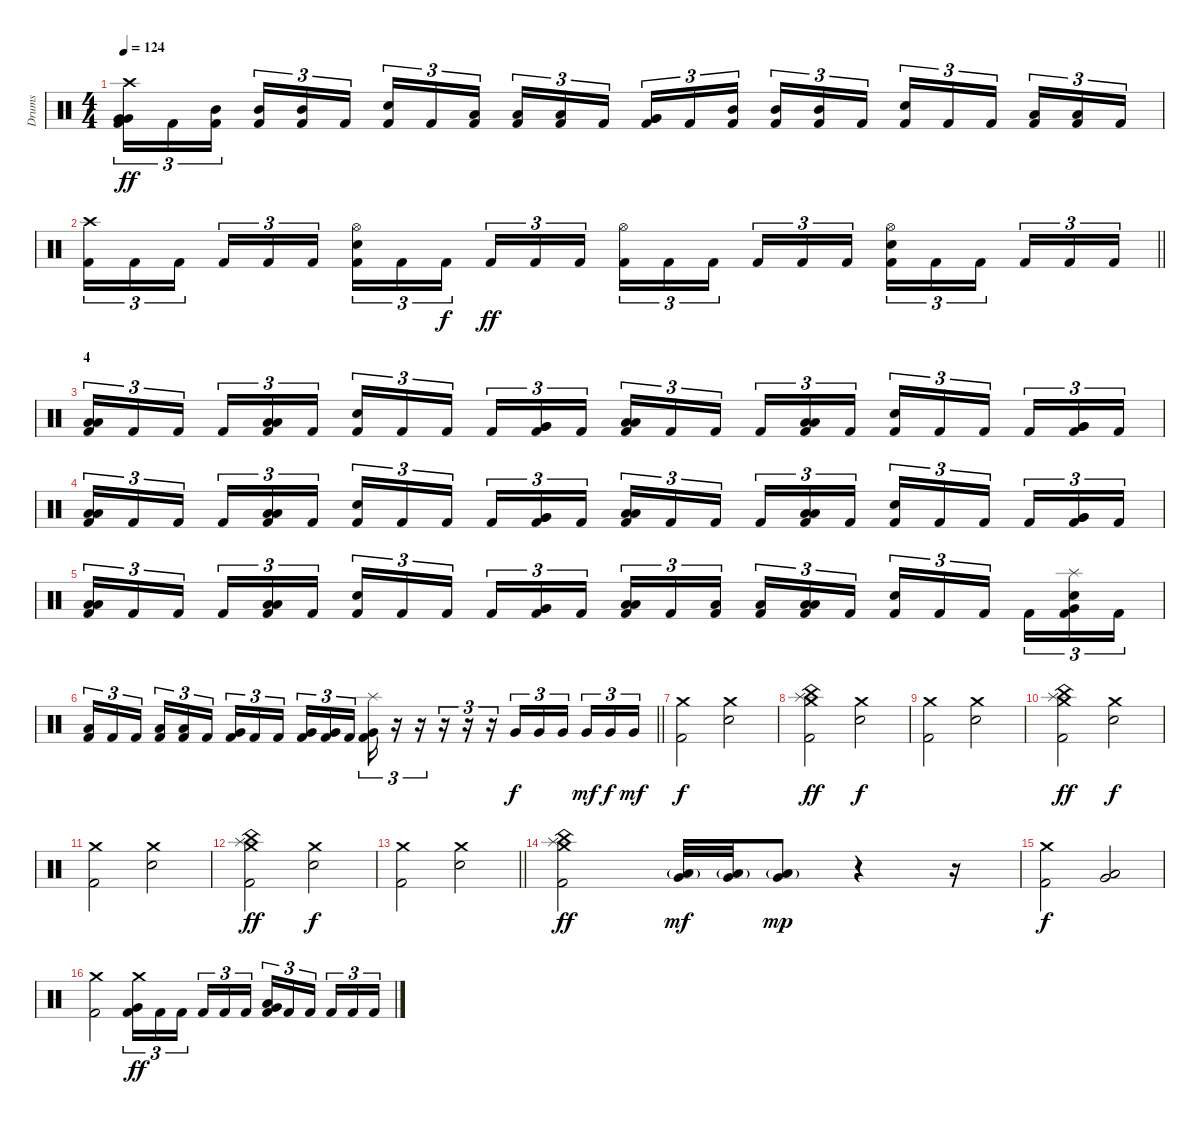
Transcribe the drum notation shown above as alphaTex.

\track ("Drums" "Drums") {instrument percussion}
\staff {score}
\articulation defaults
\ts (4 4)
\tempo 124
\clef neutral
\ks c
("Crash high (hit)" "Very Low Tom (hit)" "Very Low Tom (hit)" "Kick (hit) 2").16{tu (3 2) dy ff} "Kick (hit) 2".16{tu (3 2)} ("Mid Tom (hit)" "Kick (hit) 2").16{tu (3 2)} ("Mid Tom (hit)" "Kick (hit) 2").16{tu (3 2)} ("Mid Tom (hit)" "Kick (hit) 2").16{tu (3 2)} "Kick (hit) 2".16{tu (3 2)} ("Electric Snare (hit)" "Kick (hit) 2").16{tu (3 2)} "Kick (hit) 2".16{tu (3 2)} ("Low Tom (hit)" "Kick (hit) 2").16{tu (3 2)} ("Low Tom (hit)" "Kick (hit) 2").16{tu (3 2)} ("Low Tom (hit)" "Kick (hit) 2").16{tu (3 2)} "Kick (hit) 2".16{tu (3 2)} ("Very Low Tom (hit)" "Very Low Tom (hit)" "Kick (hit) 2").16{tu (3 2)} "Kick (hit) 2".16{tu (3 2)} ("Mid Tom (hit)" "Kick (hit) 2").16{tu (3 2)} ("Mid Tom (hit)" "Kick (hit) 2").16{tu (3 2)} ("Mid Tom (hit)" "Kick (hit) 2").16{tu (3 2)} "Kick (hit) 2".16{tu (3 2)} ("Electric Snare (hit)" "Kick (hit) 2").16{tu (3 2)} "Kick (hit) 2".16{tu (3 2)} "Kick (hit) 2".16{tu (3 2)} ("Low Tom (hit)" "Kick (hit) 2").16{tu (3 2)} ("Low Tom (hit)" "Kick (hit) 2").16{tu (3 2)} "Kick (hit) 2".16{tu (3 2)} |
\barLineRight lightlight
("Crash high (hit)" "Kick (hit) 2").16{tu (3 2)} "Kick (hit) 2".16{tu (3 2)} "Kick (hit) 2".16{tu (3 2)} "Kick (hit) 2".16{tu (3 2)} "Kick (hit) 2".16{tu (3 2)} "Kick (hit) 2".16{tu (3 2)} ("Hi-Hat (open)" "Electric Snare (hit)" "Kick (hit) 2").16{tu (3 2)} "Kick (hit) 2".16{tu (3 2)} "Kick (hit) 2".16{tu (3 2) dy f} "Kick (hit) 2".16{tu (3 2) dy ff} "Kick (hit) 2".16{tu (3 2)} "Kick (hit) 2".16{tu (3 2)} ("Hi-Hat (open)" "Kick (hit) 2").16{tu (3 2)} "Kick (hit) 2".16{tu (3 2)} "Kick (hit) 2".16{tu (3 2)} "Kick (hit) 2".16{tu (3 2)} "Kick (hit) 2".16{tu (3 2)} "Kick (hit) 2".16{tu (3 2)} ("Hi-Hat (open)" "Electric Snare (hit)" "Kick (hit) 2").16{tu (3 2)} "Kick (hit) 2".16{tu (3 2)} "Kick (hit) 2".16{tu (3 2)} "Kick (hit) 2".16{tu (3 2)} "Kick (hit) 2".16{tu (3 2)} "Kick (hit) 2".16{tu (3 2)} |
\section ("" "4")
("Low Tom (hit)" "Low Tom (hit)" "Kick (hit) 2").16{tu (3 2)} "Kick (hit) 2".16{tu (3 2)} "Kick (hit) 2".16{tu (3 2)} "Kick (hit) 2".16{tu (3 2)} ("Low Tom (hit)" "Low Tom (hit)" "Kick (hit) 2").16{tu (3 2)} "Kick (hit) 2".16{tu (3 2)} ("Electric Snare (hit)" "Kick (hit) 2").16{tu (3 2)} "Kick (hit) 2".16{tu (3 2)} "Kick (hit) 2".16{tu (3 2)} "Kick (hit) 2".16{tu (3 2)} ("Very Low Tom (hit)" "Very Low Tom (hit)" "Kick (hit) 2").16{tu (3 2)} "Kick (hit) 2".16{tu (3 2)} ("Low Tom (hit)" "Low Tom (hit)" "Kick (hit) 2").16{tu (3 2)} "Kick (hit) 2".16{tu (3 2)} "Kick (hit) 2".16{tu (3 2)} "Kick (hit) 2".16{tu (3 2)} ("Low Tom (hit)" "Low Tom (hit)" "Kick (hit) 2").16{tu (3 2)} "Kick (hit) 2".16{tu (3 2)} ("Electric Snare (hit)" "Kick (hit) 2").16{tu (3 2)} "Kick (hit) 2".16{tu (3 2)} "Kick (hit) 2".16{tu (3 2)} "Kick (hit) 2".16{tu (3 2)} ("Very Low Tom (hit)" "Very Low Tom (hit)" "Kick (hit) 2").16{tu (3 2)} "Kick (hit) 2".16{tu (3 2)} |
("Low Tom (hit)" "Low Tom (hit)" "Kick (hit) 2").16{tu (3 2)} "Kick (hit) 2".16{tu (3 2)} "Kick (hit) 2".16{tu (3 2)} "Kick (hit) 2".16{tu (3 2)} ("Low Tom (hit)" "Low Tom (hit)" "Kick (hit) 2").16{tu (3 2)} "Kick (hit) 2".16{tu (3 2)} ("Electric Snare (hit)" "Kick (hit) 2").16{tu (3 2)} "Kick (hit) 2".16{tu (3 2)} "Kick (hit) 2".16{tu (3 2)} "Kick (hit) 2".16{tu (3 2)} ("Very Low Tom (hit)" "Very Low Tom (hit)" "Kick (hit) 2").16{tu (3 2)} "Kick (hit) 2".16{tu (3 2)} ("Low Tom (hit)" "Low Tom (hit)" "Kick (hit) 2").16{tu (3 2)} "Kick (hit) 2".16{tu (3 2)} "Kick (hit) 2".16{tu (3 2)} "Kick (hit) 2".16{tu (3 2)} ("Low Tom (hit)" "Low Tom (hit)" "Kick (hit) 2").16{tu (3 2)} "Kick (hit) 2".16{tu (3 2)} ("Electric Snare (hit)" "Kick (hit) 2").16{tu (3 2)} "Kick (hit) 2".16{tu (3 2)} "Kick (hit) 2".16{tu (3 2)} "Kick (hit) 2".16{tu (3 2)} ("Very Low Tom (hit)" "Very Low Tom (hit)" "Kick (hit) 2").16{tu (3 2)} "Kick (hit) 2".16{tu (3 2)} |
("Low Tom (hit)" "Low Tom (hit)" "Kick (hit) 2").16{tu (3 2)} "Kick (hit) 2".16{tu (3 2)} "Kick (hit) 2".16{tu (3 2)} "Kick (hit) 2".16{tu (3 2)} ("Low Tom (hit)" "Low Tom (hit)" "Kick (hit) 2").16{tu (3 2)} "Kick (hit) 2".16{tu (3 2)} ("Electric Snare (hit)" "Kick (hit) 2").16{tu (3 2)} "Kick (hit) 2".16{tu (3 2)} "Kick (hit) 2".16{tu (3 2)} "Kick (hit) 2".16{tu (3 2)} ("Very Low Tom (hit)" "Very Low Tom (hit)" "Kick (hit) 2").16{tu (3 2)} "Kick (hit) 2".16{tu (3 2)} ("Low Tom (hit)" "Low Tom (hit)" "Kick (hit) 2").16{tu (3 2)} "Kick (hit) 2".16{tu (3 2)} ("Low Tom (hit)" "Kick (hit) 2").16{tu (3 2)} ("Low Tom (hit)" "Kick (hit) 2").16{tu (3 2)} ("Low Tom (hit)" "Low Tom (hit)" "Kick (hit) 2").16{tu (3 2)} "Kick (hit) 2".16{tu (3 2)} ("Electric Snare (hit)" "Kick (hit) 2").16{tu (3 2)} "Kick (hit) 2".16{tu (3 2)} "Kick (hit) 2".16{tu (3 2)} "Kick (hit) 2".16{tu (3 2)} ("Splash (hit)" "Electric Snare (hit)" "Very Low Tom (hit)" "Kick (hit) 2").16{tu (3 2)} "Kick (hit) 2".16{tu (3 2)} |
\barLineRight lightlight
("Low Tom (hit)" "Kick (hit) 2").16{tu (3 2)} "Kick (hit) 2".16{tu (3 2)} "Kick (hit) 2".16{tu (3 2)} ("Low Tom (hit)" "Kick (hit) 2").16{tu (3 2)} ("Low Tom (hit)" "Kick (hit) 2").16{tu (3 2)} "Kick (hit) 2".16{tu (3 2)} ("Very Low Tom (hit)" "Kick (hit) 2").16{tu (3 2)} "Kick (hit) 2".16{tu (3 2)} "Kick (hit) 2".16{tu (3 2)} ("Very Low Tom (hit)" "Kick (hit) 2").16{tu (3 2)} ("Very Low Tom (hit)" "Kick (hit) 2").16{tu (3 2)} "Kick (hit) 2".16{tu (3 2)} ("Splash (hit)" "Very Low Tom (hit)" "Kick (hit) 2").16{tu (3 2)} r.16{tu (3 2)} r.16{tu (3 2)} r.16{tu (3 2)} r.16{tu (3 2)} r.16{tu (3 2)} "Very Low Tom (hit)".16{tu (3 2) dy f} "Very Low Tom (hit)".16{tu (3 2)} "Very Low Tom (hit)".16{tu (3 2)} "Very Low Tom (hit)".16{tu (3 2) dy mf} "Very Low Tom (hit)".16{tu (3 2) dy f} "Very Low Tom (hit)".16{tu (3 2) dy mf} |
("Crash medium (hit)" "Kick (hit) 2").2{dy f} ("Crash medium (hit)" "Electric Snare (hit)").2 |
("Crash medium (hit)" "Splash (hit)" "China (hit)" "Kick (hit) 2").2{dy ff} ("Crash medium (hit)" "Electric Snare (hit)").2{dy f} |
("Crash medium (hit)" "Kick (hit) 2").2 ("Crash medium (hit)" "Electric Snare (hit)").2 |
("Crash medium (hit)" "Splash (hit)" "China (hit)" "Kick (hit) 2").2{dy ff} ("Crash medium (hit)" "Electric Snare (hit)").2{dy f} |
("Crash medium (hit)" "Kick (hit) 2").2 ("Crash medium (hit)" "Electric Snare (hit)").2 |
("Crash medium (hit)" "Splash (hit)" "China (hit)" "Kick (hit) 2").2{dy ff} ("Crash medium (hit)" "Electric Snare (hit)").2{dy f} |
\barLineRight lightlight
("Crash medium (hit)" "Kick (hit) 2").2 ("Crash medium (hit)" "Electric Snare (hit)").2 |
("Crash medium (hit)" "Splash (hit)" "China (hit)" "Kick (hit) 2").2{dy ff} ("Low Floor Tom (hit)"{g} "Very Low Tom (hit)").32{dy mf} ("Low Floor Tom (hit)"{g} "Very Low Tom (hit)").32 ("Low Floor Tom (hit)"{g} "Very Low Tom (hit)").8{dy mp} r.4 r.16 |
("Crash medium (hit)" "Kick (hit) 2").2{dy f} ("Low Floor Tom (hit)" "Very Low Tom (hit)").2 |
("Crash medium (hit)" "Kick (hit) 2").2 ("Crash medium (hit)" "Very Low Tom (hit)" "Kick (hit) 2").16{tu (3 2) dy ff} "Kick (hit) 2".16{tu (3 2)} "Kick (hit) 2".16{tu (3 2)} "Kick (hit) 2".16{tu (3 2)} "Kick (hit) 2".16{tu (3 2)} "Kick (hit) 2".16{tu (3 2)} ("Very Low Tom (hit)" "Low Tom (hit)" "Kick (hit) 2").16{tu (3 2)} "Kick (hit) 2".16{tu (3 2)} "Kick (hit) 2".16{tu (3 2)} "Kick (hit) 2".16{tu (3 2)} "Kick (hit) 2".16{tu (3 2)} "Kick (hit) 2".16{tu (3 2)}
